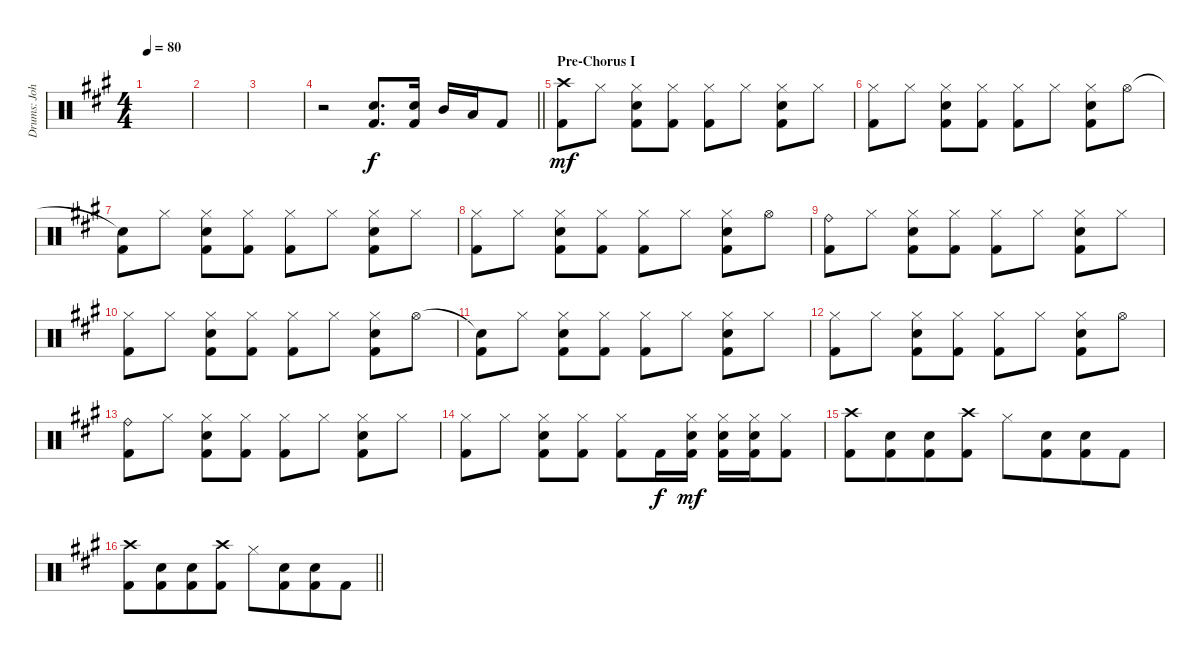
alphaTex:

\track ("Drums: John Wilcox" "Drums: Joh") {instrument percussion}
\staff {score}
\articulation defaults
\ts (4 4)
\tempo 80
\clef neutral
\ks a
|
|
|
\barLineRight lightlight
r.2 ("Snare (hit) 2" "Kick (hit) 2").8{d} ("Snare (hit) 2" "Kick (hit) 2").16 "Mid Tom (hit)".16{dy f} "Low Tom (hit)".16 "Kick (hit) 2".8 |
\section ("" "Pre-Chorus I")
("Crash high (hit)" "Kick (hit) 2").8{dy mf} "Hi-Hat (closed)".8 ("Hi-Hat (closed)" "Snare (hit) 2" "Kick (hit) 2").8 ("Hi-Hat (closed)" "Kick (hit) 2").8 ("Hi-Hat (closed)" "Kick (hit) 2").8 "Hi-Hat (closed)".8 ("Hi-Hat (closed)" "Snare (hit) 2" "Kick (hit) 2").8 "Hi-Hat (closed)".8 |
("Hi-Hat (closed)" "Kick (hit) 2").8 "Hi-Hat (closed)".8 ("Hi-Hat (closed)" "Snare (hit) 2" "Kick (hit) 2").8 ("Hi-Hat (closed)" "Kick (hit) 2").8 ("Hi-Hat (closed)" "Kick (hit) 2").8 "Hi-Hat (closed)".8 ("Hi-Hat (closed)" "Snare (hit) 2" "Kick (hit) 2").8 "Hi-Hat (open)".8 |
("Snare (hit)"{t} "Kick (hit) 2").8 "Hi-Hat (closed)".8 ("Hi-Hat (closed)" "Snare (hit) 2" "Kick (hit) 2").8 ("Hi-Hat (closed)" "Kick (hit) 2").8 ("Hi-Hat (closed)" "Kick (hit) 2").8 "Hi-Hat (closed)".8 ("Hi-Hat (closed)" "Snare (hit) 2" "Kick (hit) 2").8 "Hi-Hat (closed)".8 |
("Hi-Hat (closed)" "Kick (hit) 2").8 "Hi-Hat (closed)".8 ("Hi-Hat (closed)" "Snare (hit) 2" "Kick (hit) 2").8 ("Hi-Hat (closed)" "Kick (hit) 2").8 ("Hi-Hat (closed)" "Kick (hit) 2").8 "Hi-Hat (closed)".8 ("Hi-Hat (closed)" "Snare (hit) 2" "Kick (hit) 2").8 "Hi-Hat (open)".8 |
("Ride (bell)" "Kick (hit) 2").8 "Hi-Hat (closed)".8 ("Hi-Hat (closed)" "Snare (hit) 2" "Kick (hit) 2").8 ("Hi-Hat (closed)" "Kick (hit) 2").8 ("Hi-Hat (closed)" "Kick (hit) 2").8 "Hi-Hat (closed)".8 ("Hi-Hat (closed)" "Snare (hit) 2" "Kick (hit) 2").8 "Hi-Hat (closed)".8 |
("Hi-Hat (closed)" "Kick (hit) 2").8 "Hi-Hat (closed)".8 ("Hi-Hat (closed)" "Snare (hit) 2" "Kick (hit) 2").8 ("Hi-Hat (closed)" "Kick (hit) 2").8 ("Hi-Hat (closed)" "Kick (hit) 2").8 "Hi-Hat (closed)".8 ("Hi-Hat (closed)" "Snare (hit) 2" "Kick (hit) 2").8 "Hi-Hat (open)".8 |
("Snare (hit)"{t} "Kick (hit) 2").8 "Hi-Hat (closed)".8 ("Hi-Hat (closed)" "Snare (hit) 2" "Kick (hit) 2").8 ("Hi-Hat (closed)" "Kick (hit) 2").8 ("Hi-Hat (closed)" "Kick (hit) 2").8 "Hi-Hat (closed)".8 ("Hi-Hat (closed)" "Snare (hit) 2" "Kick (hit) 2").8 "Hi-Hat (closed)".8 |
("Hi-Hat (closed)" "Kick (hit) 2").8 "Hi-Hat (closed)".8 ("Hi-Hat (closed)" "Snare (hit) 2" "Kick (hit) 2").8 ("Hi-Hat (closed)" "Kick (hit) 2").8 ("Hi-Hat (closed)" "Kick (hit) 2").8 "Hi-Hat (closed)".8 ("Hi-Hat (closed)" "Snare (hit) 2" "Kick (hit) 2").8 "Hi-Hat (open)".8 |
("Ride (bell)" "Kick (hit) 2").8 "Hi-Hat (closed)".8 ("Hi-Hat (closed)" "Snare (hit) 2" "Kick (hit) 2").8 ("Hi-Hat (closed)" "Kick (hit) 2").8 ("Hi-Hat (closed)" "Kick (hit) 2").8 "Hi-Hat (closed)".8 ("Hi-Hat (closed)" "Snare (hit) 2" "Kick (hit) 2").8 "Hi-Hat (closed)".8 |
("Hi-Hat (closed)" "Kick (hit) 2").8 "Hi-Hat (closed)".8 ("Hi-Hat (closed)" "Snare (hit) 2" "Kick (hit) 2").8 ("Hi-Hat (closed)" "Kick (hit) 2").8 ("Hi-Hat (closed)" "Kick (hit) 2").8 "Kick (hit) 2".16{dy f} ("Hi-Hat (closed)" "Snare (hit) 2" "Kick (hit) 2").16{dy mf} ("Hi-Hat (closed)" "Snare (hit) 2" "Kick (hit) 2").16 ("Hi-Hat (closed)" "Snare (hit) 2" "Kick (hit) 2").16 ("Hi-Hat (closed)" "Kick (hit) 2").8 |
("Crash high (hit)" "Kick (hit) 2").8 ("Snare (hit) 2" "Kick (hit) 2").8{beam merge} ("Snare (hit) 2" "Kick (hit) 2").8 ("Crash high (hit)" "Kick (hit) 2").8 "Hi-Hat (closed)".8 ("Snare (hit) 2" "Kick (hit) 2").8{beam merge} ("Snare (hit) 2" "Kick (hit) 2").8{beam merge} "Kick (hit) 2".8 |
\barLineRight lightlight
("Crash high (hit)" "Kick (hit) 2").8 ("Snare (hit) 2" "Kick (hit) 2").8{beam merge} ("Snare (hit) 2" "Kick (hit) 2").8 ("Crash high (hit)" "Kick (hit) 2").8 "Hi-Hat (closed)".8 ("Snare (hit) 2" "Kick (hit) 2").8{beam merge} ("Snare (hit) 2" "Kick (hit) 2").8{beam merge} "Kick (hit) 2".8
